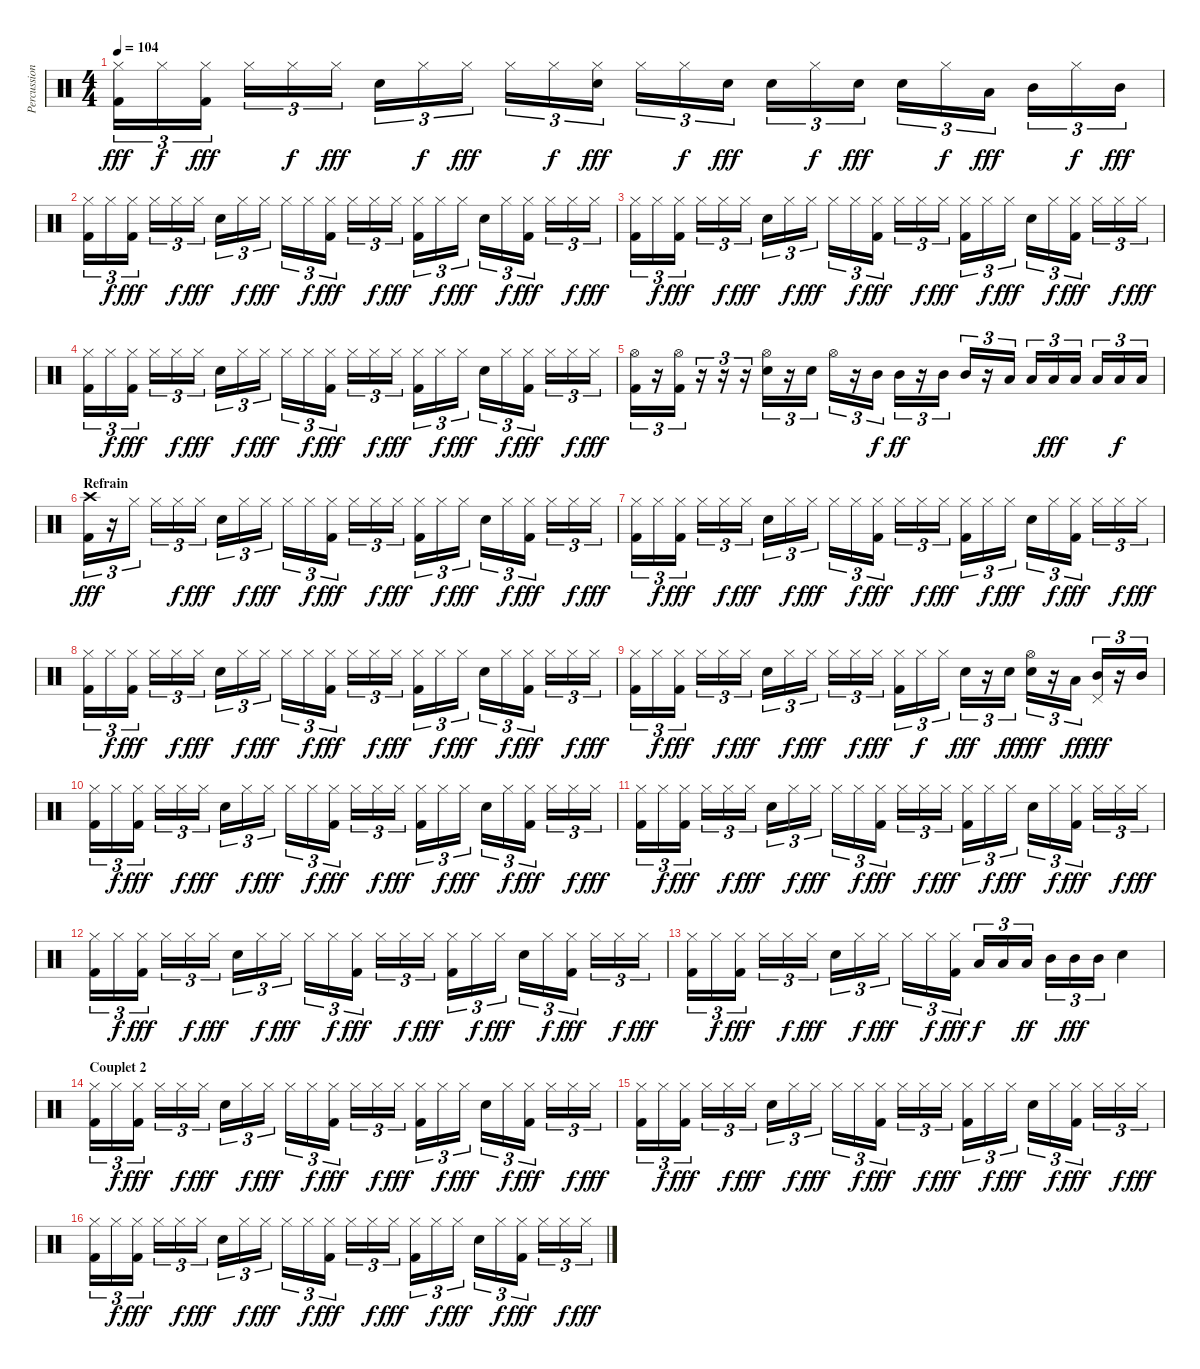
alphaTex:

\track ("Percussions" "Percussion") {instrument percussion}
\staff {score}
\articulation defaults
\ts (4 4)
\tempo 104
\clef neutral
\ks c
("Hi-Hat (closed)" "Kick (hit) 2").16{tu (3 2) dy fff} "Hi-Hat (closed)".16{tu (3 2) dy f} ("Hi-Hat (closed)" "Kick (hit) 2").16{tu (3 2) dy fff} "Hi-Hat (closed)".16{tu (3 2)} "Hi-Hat (closed)".16{tu (3 2) dy f} "Hi-Hat (closed)".16{tu (3 2) dy fff} "Snare (hit) 2".16{tu (3 2)} "Hi-Hat (closed)".16{tu (3 2) dy f} "Hi-Hat (closed)".16{tu (3 2) dy fff} "Hi-Hat (closed)".16{tu (3 2)} "Hi-Hat (closed)".16{tu (3 2) dy f} ("Hi-Hat (closed)" "Snare (hit) 2").16{tu (3 2) dy fff} "Hi-Hat (closed)".16{tu (3 2)} "Hi-Hat (closed)".16{tu (3 2) dy f} "Snare (hit) 2".16{tu (3 2) dy fff} "Snare (hit) 2".16{tu (3 2)} "Hi-Hat (closed)".16{tu (3 2) dy f} "Snare (hit) 2".16{tu (3 2) dy fff} "Snare (hit) 2".16{tu (3 2)} "Hi-Hat (closed)".16{tu (3 2) dy f} "Low Tom (hit)".16{tu (3 2) dy fff} "Mid Tom (hit)".16{tu (3 2)} "Hi-Hat (closed)".16{tu (3 2) dy f} "Mid Tom (hit)".16{tu (3 2) dy fff} |
("Hi-Hat (closed)" "Kick (hit) 2").16{tu (3 2)} "Hi-Hat (closed)".16{tu (3 2) dy f} ("Hi-Hat (closed)" "Kick (hit) 2").16{tu (3 2) dy fff} "Hi-Hat (closed)".16{tu (3 2)} "Hi-Hat (closed)".16{tu (3 2) dy f} "Hi-Hat (closed)".16{tu (3 2) dy fff} "Snare (hit) 2".16{tu (3 2)} "Hi-Hat (closed)".16{tu (3 2) dy f} "Hi-Hat (closed)".16{tu (3 2) dy fff} "Hi-Hat (closed)".16{tu (3 2)} "Hi-Hat (closed)".16{tu (3 2) dy f} ("Hi-Hat (closed)" "Kick (hit) 2").16{tu (3 2) dy fff} "Hi-Hat (closed)".16{tu (3 2)} "Hi-Hat (closed)".16{tu (3 2) dy f} "Hi-Hat (closed)".16{tu (3 2) dy fff} ("Hi-Hat (closed)" "Kick (hit) 2").16{tu (3 2)} "Hi-Hat (closed)".16{tu (3 2) dy f} "Hi-Hat (closed)".16{tu (3 2) dy fff} "Snare (hit) 2".16{tu (3 2)} "Hi-Hat (closed)".16{tu (3 2) dy f} ("Hi-Hat (closed)" "Kick (hit) 2").16{tu (3 2) dy fff} "Hi-Hat (closed)".16{tu (3 2)} "Hi-Hat (closed)".16{tu (3 2) dy f} "Hi-Hat (closed)".16{tu (3 2) dy fff} |
("Hi-Hat (closed)" "Kick (hit) 2").16{tu (3 2)} "Hi-Hat (closed)".16{tu (3 2) dy f} ("Hi-Hat (closed)" "Kick (hit) 2").16{tu (3 2) dy fff} "Hi-Hat (closed)".16{tu (3 2)} "Hi-Hat (closed)".16{tu (3 2) dy f} "Hi-Hat (closed)".16{tu (3 2) dy fff} "Snare (hit) 2".16{tu (3 2)} "Hi-Hat (closed)".16{tu (3 2) dy f} "Hi-Hat (closed)".16{tu (3 2) dy fff} "Hi-Hat (closed)".16{tu (3 2)} "Hi-Hat (closed)".16{tu (3 2) dy f} ("Hi-Hat (closed)" "Kick (hit) 2").16{tu (3 2) dy fff} "Hi-Hat (closed)".16{tu (3 2)} "Hi-Hat (closed)".16{tu (3 2) dy f} "Hi-Hat (closed)".16{tu (3 2) dy fff} ("Hi-Hat (closed)" "Kick (hit) 2").16{tu (3 2)} "Hi-Hat (closed)".16{tu (3 2) dy f} "Hi-Hat (closed)".16{tu (3 2) dy fff} "Snare (hit) 2".16{tu (3 2)} "Hi-Hat (closed)".16{tu (3 2) dy f} ("Hi-Hat (closed)" "Kick (hit) 2").16{tu (3 2) dy fff} "Hi-Hat (closed)".16{tu (3 2)} "Hi-Hat (closed)".16{tu (3 2) dy f} "Hi-Hat (closed)".16{tu (3 2) dy fff} |
("Hi-Hat (closed)" "Kick (hit) 2").16{tu (3 2)} "Hi-Hat (closed)".16{tu (3 2) dy f} ("Hi-Hat (closed)" "Kick (hit) 2").16{tu (3 2) dy fff} "Hi-Hat (closed)".16{tu (3 2)} "Hi-Hat (closed)".16{tu (3 2) dy f} "Hi-Hat (closed)".16{tu (3 2) dy fff} "Snare (hit) 2".16{tu (3 2)} "Hi-Hat (closed)".16{tu (3 2) dy f} "Hi-Hat (closed)".16{tu (3 2) dy fff} "Hi-Hat (closed)".16{tu (3 2)} "Hi-Hat (closed)".16{tu (3 2) dy f} ("Hi-Hat (closed)" "Kick (hit) 2").16{tu (3 2) dy fff} "Hi-Hat (closed)".16{tu (3 2)} "Hi-Hat (closed)".16{tu (3 2) dy f} "Hi-Hat (closed)".16{tu (3 2) dy fff} ("Hi-Hat (closed)" "Kick (hit) 2").16{tu (3 2)} "Hi-Hat (closed)".16{tu (3 2) dy f} "Hi-Hat (closed)".16{tu (3 2) dy fff} "Snare (hit) 2".16{tu (3 2)} "Hi-Hat (closed)".16{tu (3 2) dy f} ("Hi-Hat (closed)" "Kick (hit) 2").16{tu (3 2) dy fff} "Hi-Hat (closed)".16{tu (3 2)} "Hi-Hat (closed)".16{tu (3 2) dy f} "Hi-Hat (closed)".16{tu (3 2) dy fff} |
("Hi-Hat (open)" "Kick (hit) 2").16{tu (3 2)} r.16{tu (3 2)} ("Hi-Hat (open)" "Kick (hit) 2").16{tu (3 2)} r.16{tu (3 2)} r.16{tu (3 2)} r.16{tu (3 2)} ("Hi-Hat (open)" "Snare (hit) 2").16{tu (3 2)} r.16{tu (3 2)} "Snare (hit) 2".16{tu (3 2)} "Hi-Hat (open)".16{tu (3 2)} r.16{tu (3 2)} "Mid Tom (hit)".16{tu (3 2) dy f} "Mid Tom (hit)".16{tu (3 2) dy ff} r.16{tu (3 2)} "Mid Tom (hit)".16{tu (3 2)} "Mid Tom (hit)".16{tu (3 2)} r.16{tu (3 2)} "Low Tom (hit)".16{tu (3 2)} "Low Tom (hit)".16{tu (3 2)} "Low Tom (hit)".16{tu (3 2) dy fff} "Low Tom (hit)".16{tu (3 2)} "Low Floor Tom (hit)".16{tu (3 2)} "Low Floor Tom (hit)".16{tu (3 2) dy f} "Low Floor Tom (hit)".16{tu (3 2)} |
\section ("" "Refrain")
("Crash high (hit)" "Kick (hit) 2").16{tu (3 2) dy fff} r.16{tu (3 2)} "Hi-Hat (closed)".16{tu (3 2)} "Hi-Hat (closed)".16{tu (3 2)} "Hi-Hat (closed)".16{tu (3 2) dy f} "Hi-Hat (closed)".16{tu (3 2) dy fff} "Snare (hit) 2".16{tu (3 2)} "Hi-Hat (closed)".16{tu (3 2) dy f} "Hi-Hat (closed)".16{tu (3 2) dy fff} "Hi-Hat (closed)".16{tu (3 2)} "Hi-Hat (closed)".16{tu (3 2) dy f} ("Hi-Hat (closed)" "Kick (hit) 2").16{tu (3 2) dy fff} "Hi-Hat (closed)".16{tu (3 2)} "Hi-Hat (closed)".16{tu (3 2) dy f} "Hi-Hat (closed)".16{tu (3 2) dy fff} ("Hi-Hat (closed)" "Kick (hit) 2").16{tu (3 2)} "Hi-Hat (closed)".16{tu (3 2) dy f} "Hi-Hat (closed)".16{tu (3 2) dy fff} "Snare (hit) 2".16{tu (3 2)} "Hi-Hat (closed)".16{tu (3 2) dy f} ("Hi-Hat (closed)" "Kick (hit) 2").16{tu (3 2) dy fff} "Hi-Hat (closed)".16{tu (3 2)} "Hi-Hat (closed)".16{tu (3 2) dy f} "Hi-Hat (closed)".16{tu (3 2) dy fff} |
("Hi-Hat (closed)" "Kick (hit) 2").16{tu (3 2)} "Hi-Hat (closed)".16{tu (3 2) dy f} ("Hi-Hat (closed)" "Kick (hit) 2").16{tu (3 2) dy fff} "Hi-Hat (closed)".16{tu (3 2)} "Hi-Hat (closed)".16{tu (3 2) dy f} "Hi-Hat (closed)".16{tu (3 2) dy fff} "Snare (hit) 2".16{tu (3 2)} "Hi-Hat (closed)".16{tu (3 2) dy f} "Hi-Hat (closed)".16{tu (3 2) dy fff} "Hi-Hat (closed)".16{tu (3 2)} "Hi-Hat (closed)".16{tu (3 2) dy f} ("Hi-Hat (closed)" "Kick (hit) 2").16{tu (3 2) dy fff} "Hi-Hat (closed)".16{tu (3 2)} "Hi-Hat (closed)".16{tu (3 2) dy f} "Hi-Hat (closed)".16{tu (3 2) dy fff} ("Hi-Hat (closed)" "Kick (hit) 2").16{tu (3 2)} "Hi-Hat (closed)".16{tu (3 2) dy f} "Hi-Hat (closed)".16{tu (3 2) dy fff} "Snare (hit) 2".16{tu (3 2)} "Hi-Hat (closed)".16{tu (3 2) dy f} ("Hi-Hat (closed)" "Kick (hit) 2").16{tu (3 2) dy fff} "Hi-Hat (closed)".16{tu (3 2)} "Hi-Hat (closed)".16{tu (3 2) dy f} "Hi-Hat (closed)".16{tu (3 2) dy fff} |
("Hi-Hat (closed)" "Kick (hit) 2").16{tu (3 2)} "Hi-Hat (closed)".16{tu (3 2) dy f} ("Hi-Hat (closed)" "Kick (hit) 2").16{tu (3 2) dy fff} "Hi-Hat (closed)".16{tu (3 2)} "Hi-Hat (closed)".16{tu (3 2) dy f} "Hi-Hat (closed)".16{tu (3 2) dy fff} "Snare (hit) 2".16{tu (3 2)} "Hi-Hat (closed)".16{tu (3 2) dy f} "Hi-Hat (closed)".16{tu (3 2) dy fff} "Hi-Hat (closed)".16{tu (3 2)} "Hi-Hat (closed)".16{tu (3 2) dy f} ("Hi-Hat (closed)" "Kick (hit) 2").16{tu (3 2) dy fff} "Hi-Hat (closed)".16{tu (3 2)} "Hi-Hat (closed)".16{tu (3 2) dy f} "Hi-Hat (closed)".16{tu (3 2) dy fff} ("Hi-Hat (closed)" "Kick (hit) 2").16{tu (3 2)} "Hi-Hat (closed)".16{tu (3 2) dy f} "Hi-Hat (closed)".16{tu (3 2) dy fff} "Snare (hit) 2".16{tu (3 2)} "Hi-Hat (closed)".16{tu (3 2) dy f} ("Hi-Hat (closed)" "Kick (hit) 2").16{tu (3 2) dy fff} "Hi-Hat (closed)".16{tu (3 2)} "Hi-Hat (closed)".16{tu (3 2) dy f} "Hi-Hat (closed)".16{tu (3 2) dy fff} |
("Hi-Hat (closed)" "Kick (hit) 2").16{tu (3 2)} "Hi-Hat (closed)".16{tu (3 2) dy f} ("Hi-Hat (closed)" "Kick (hit) 2").16{tu (3 2) dy fff} "Hi-Hat (closed)".16{tu (3 2)} "Hi-Hat (closed)".16{tu (3 2) dy f} "Hi-Hat (closed)".16{tu (3 2) dy fff} "Snare (hit) 2".16{tu (3 2)} "Hi-Hat (closed)".16{tu (3 2) dy f} "Hi-Hat (closed)".16{tu (3 2) dy fff} "Hi-Hat (closed)".16{tu (3 2)} "Hi-Hat (closed)".16{tu (3 2) dy f} "Hi-Hat (closed)".16{tu (3 2) dy fff} ("Hi-Hat (closed)" "Kick (hit) 2").16{tu (3 2)} "Hi-Hat (closed)".16{tu (3 2) dy f} "Hi-Hat (closed)".16{tu (3 2)} "Snare (hit) 2".16{tu (3 2) dy fff} r.16{tu (3 2)} "Snare (hit) 2".16{tu (3 2) dy ff} ("Hi-Hat (open)" "Snare (hit) 2").16{tu (3 2) dy fff} r.16{tu (3 2)} "Low Tom (hit)".16{tu (3 2) dy ff} ("Pedal Hi-Hat (hit)" "Mid Tom (hit)").16{tu (3 2) dy fff} r.16{tu (3 2)} "Mid Tom (hit)".16{tu (3 2)} |
("Hi-Hat (closed)" "Kick (hit) 2").16{tu (3 2)} "Hi-Hat (closed)".16{tu (3 2) dy f} ("Hi-Hat (closed)" "Kick (hit) 2").16{tu (3 2) dy fff} "Hi-Hat (closed)".16{tu (3 2)} "Hi-Hat (closed)".16{tu (3 2) dy f} "Hi-Hat (closed)".16{tu (3 2) dy fff} "Snare (hit) 2".16{tu (3 2)} "Hi-Hat (closed)".16{tu (3 2) dy f} "Hi-Hat (closed)".16{tu (3 2) dy fff} "Hi-Hat (closed)".16{tu (3 2)} "Hi-Hat (closed)".16{tu (3 2) dy f} ("Hi-Hat (closed)" "Kick (hit) 2").16{tu (3 2) dy fff} "Hi-Hat (closed)".16{tu (3 2)} "Hi-Hat (closed)".16{tu (3 2) dy f} "Hi-Hat (closed)".16{tu (3 2) dy fff} ("Hi-Hat (closed)" "Kick (hit) 2").16{tu (3 2)} "Hi-Hat (closed)".16{tu (3 2) dy f} "Hi-Hat (closed)".16{tu (3 2) dy fff} "Snare (hit) 2".16{tu (3 2)} "Hi-Hat (closed)".16{tu (3 2) dy f} ("Hi-Hat (closed)" "Kick (hit) 2").16{tu (3 2) dy fff} "Hi-Hat (closed)".16{tu (3 2)} "Hi-Hat (closed)".16{tu (3 2) dy f} "Hi-Hat (closed)".16{tu (3 2) dy fff} |
("Hi-Hat (closed)" "Kick (hit) 2").16{tu (3 2)} "Hi-Hat (closed)".16{tu (3 2) dy f} ("Hi-Hat (closed)" "Kick (hit) 2").16{tu (3 2) dy fff} "Hi-Hat (closed)".16{tu (3 2)} "Hi-Hat (closed)".16{tu (3 2) dy f} "Hi-Hat (closed)".16{tu (3 2) dy fff} "Snare (hit) 2".16{tu (3 2)} "Hi-Hat (closed)".16{tu (3 2) dy f} "Hi-Hat (closed)".16{tu (3 2) dy fff} "Hi-Hat (closed)".16{tu (3 2)} "Hi-Hat (closed)".16{tu (3 2) dy f} ("Hi-Hat (closed)" "Kick (hit) 2").16{tu (3 2) dy fff} "Hi-Hat (closed)".16{tu (3 2)} "Hi-Hat (closed)".16{tu (3 2) dy f} "Hi-Hat (closed)".16{tu (3 2) dy fff} ("Hi-Hat (closed)" "Kick (hit) 2").16{tu (3 2)} "Hi-Hat (closed)".16{tu (3 2) dy f} "Hi-Hat (closed)".16{tu (3 2) dy fff} "Snare (hit) 2".16{tu (3 2)} "Hi-Hat (closed)".16{tu (3 2) dy f} ("Hi-Hat (closed)" "Kick (hit) 2").16{tu (3 2) dy fff} "Hi-Hat (closed)".16{tu (3 2)} "Hi-Hat (closed)".16{tu (3 2) dy f} "Hi-Hat (closed)".16{tu (3 2) dy fff} |
("Hi-Hat (closed)" "Kick (hit) 2").16{tu (3 2)} "Hi-Hat (closed)".16{tu (3 2) dy f} ("Hi-Hat (closed)" "Kick (hit) 2").16{tu (3 2) dy fff} "Hi-Hat (closed)".16{tu (3 2)} "Hi-Hat (closed)".16{tu (3 2) dy f} "Hi-Hat (closed)".16{tu (3 2) dy fff} "Snare (hit) 2".16{tu (3 2)} "Hi-Hat (closed)".16{tu (3 2) dy f} "Hi-Hat (closed)".16{tu (3 2) dy fff} "Hi-Hat (closed)".16{tu (3 2)} "Hi-Hat (closed)".16{tu (3 2) dy f} ("Hi-Hat (closed)" "Kick (hit) 2").16{tu (3 2) dy fff} "Hi-Hat (closed)".16{tu (3 2)} "Hi-Hat (closed)".16{tu (3 2) dy f} "Hi-Hat (closed)".16{tu (3 2) dy fff} ("Hi-Hat (closed)" "Kick (hit) 2").16{tu (3 2)} "Hi-Hat (closed)".16{tu (3 2) dy f} "Hi-Hat (closed)".16{tu (3 2) dy fff} "Snare (hit) 2".16{tu (3 2)} "Hi-Hat (closed)".16{tu (3 2) dy f} ("Hi-Hat (closed)" "Kick (hit) 2").16{tu (3 2) dy fff} "Hi-Hat (closed)".16{tu (3 2)} "Hi-Hat (closed)".16{tu (3 2) dy f} "Hi-Hat (closed)".16{tu (3 2) dy fff} |
("Hi-Hat (closed)" "Kick (hit) 2").16{tu (3 2)} "Hi-Hat (closed)".16{tu (3 2) dy f} ("Hi-Hat (closed)" "Kick (hit) 2").16{tu (3 2) dy fff} "Hi-Hat (closed)".16{tu (3 2)} "Hi-Hat (closed)".16{tu (3 2) dy f} "Hi-Hat (closed)".16{tu (3 2) dy fff} "Snare (hit) 2".16{tu (3 2)} "Hi-Hat (closed)".16{tu (3 2) dy f} "Hi-Hat (closed)".16{tu (3 2) dy fff} "Hi-Hat (closed)".16{tu (3 2)} "Hi-Hat (closed)".16{tu (3 2) dy f} ("Hi-Hat (closed)" "Kick (hit) 2").16{tu (3 2) dy fff} "Low Tom (hit)".16{tu (3 2) dy f} "Low Tom (hit)".16{tu (3 2)} "Low Tom (hit)".16{tu (3 2) dy ff} "Mid Tom (hit)".16{tu (3 2)} "Mid Tom (hit)".16{tu (3 2) dy fff} "Mid Tom (hit)".16{tu (3 2)} "Snare (hit) 2".4 |
\section ("" "Couplet 2")
("Hi-Hat (closed)" "Kick (hit) 2").16{tu (3 2)} "Hi-Hat (closed)".16{tu (3 2) dy f} ("Hi-Hat (closed)" "Kick (hit) 2").16{tu (3 2) dy fff} "Hi-Hat (closed)".16{tu (3 2)} "Hi-Hat (closed)".16{tu (3 2) dy f} "Hi-Hat (closed)".16{tu (3 2) dy fff} "Snare (hit) 2".16{tu (3 2)} "Hi-Hat (closed)".16{tu (3 2) dy f} "Hi-Hat (closed)".16{tu (3 2) dy fff} "Hi-Hat (closed)".16{tu (3 2)} "Hi-Hat (closed)".16{tu (3 2) dy f} ("Hi-Hat (closed)" "Kick (hit) 2").16{tu (3 2) dy fff} "Hi-Hat (closed)".16{tu (3 2)} "Hi-Hat (closed)".16{tu (3 2) dy f} "Hi-Hat (closed)".16{tu (3 2) dy fff} ("Hi-Hat (closed)" "Kick (hit) 2").16{tu (3 2)} "Hi-Hat (closed)".16{tu (3 2) dy f} "Hi-Hat (closed)".16{tu (3 2) dy fff} "Snare (hit) 2".16{tu (3 2)} "Hi-Hat (closed)".16{tu (3 2) dy f} ("Hi-Hat (closed)" "Kick (hit) 2").16{tu (3 2) dy fff} "Hi-Hat (closed)".16{tu (3 2)} "Hi-Hat (closed)".16{tu (3 2) dy f} "Hi-Hat (closed)".16{tu (3 2) dy fff} |
("Hi-Hat (closed)" "Kick (hit) 2").16{tu (3 2)} "Hi-Hat (closed)".16{tu (3 2) dy f} ("Hi-Hat (closed)" "Kick (hit) 2").16{tu (3 2) dy fff} "Hi-Hat (closed)".16{tu (3 2)} "Hi-Hat (closed)".16{tu (3 2) dy f} "Hi-Hat (closed)".16{tu (3 2) dy fff} "Snare (hit) 2".16{tu (3 2)} "Hi-Hat (closed)".16{tu (3 2) dy f} "Hi-Hat (closed)".16{tu (3 2) dy fff} "Hi-Hat (closed)".16{tu (3 2)} "Hi-Hat (closed)".16{tu (3 2) dy f} ("Hi-Hat (closed)" "Kick (hit) 2").16{tu (3 2) dy fff} "Hi-Hat (closed)".16{tu (3 2)} "Hi-Hat (closed)".16{tu (3 2) dy f} "Hi-Hat (closed)".16{tu (3 2) dy fff} ("Hi-Hat (closed)" "Kick (hit) 2").16{tu (3 2)} "Hi-Hat (closed)".16{tu (3 2) dy f} "Hi-Hat (closed)".16{tu (3 2) dy fff} "Snare (hit) 2".16{tu (3 2)} "Hi-Hat (closed)".16{tu (3 2) dy f} ("Hi-Hat (closed)" "Kick (hit) 2").16{tu (3 2) dy fff} "Hi-Hat (closed)".16{tu (3 2)} "Hi-Hat (closed)".16{tu (3 2) dy f} "Hi-Hat (closed)".16{tu (3 2) dy fff} |
("Hi-Hat (closed)" "Kick (hit) 2").16{tu (3 2)} "Hi-Hat (closed)".16{tu (3 2) dy f} ("Hi-Hat (closed)" "Kick (hit) 2").16{tu (3 2) dy fff} "Hi-Hat (closed)".16{tu (3 2)} "Hi-Hat (closed)".16{tu (3 2) dy f} "Hi-Hat (closed)".16{tu (3 2) dy fff} "Snare (hit) 2".16{tu (3 2)} "Hi-Hat (closed)".16{tu (3 2) dy f} "Hi-Hat (closed)".16{tu (3 2) dy fff} "Hi-Hat (closed)".16{tu (3 2)} "Hi-Hat (closed)".16{tu (3 2) dy f} ("Hi-Hat (closed)" "Kick (hit) 2").16{tu (3 2) dy fff} "Hi-Hat (closed)".16{tu (3 2)} "Hi-Hat (closed)".16{tu (3 2) dy f} "Hi-Hat (closed)".16{tu (3 2) dy fff} ("Hi-Hat (closed)" "Kick (hit) 2").16{tu (3 2)} "Hi-Hat (closed)".16{tu (3 2) dy f} "Hi-Hat (closed)".16{tu (3 2) dy fff} "Snare (hit) 2".16{tu (3 2)} "Hi-Hat (closed)".16{tu (3 2) dy f} ("Hi-Hat (closed)" "Kick (hit) 2").16{tu (3 2) dy fff} "Hi-Hat (closed)".16{tu (3 2)} "Hi-Hat (closed)".16{tu (3 2) dy f} "Hi-Hat (closed)".16{tu (3 2) dy fff}
